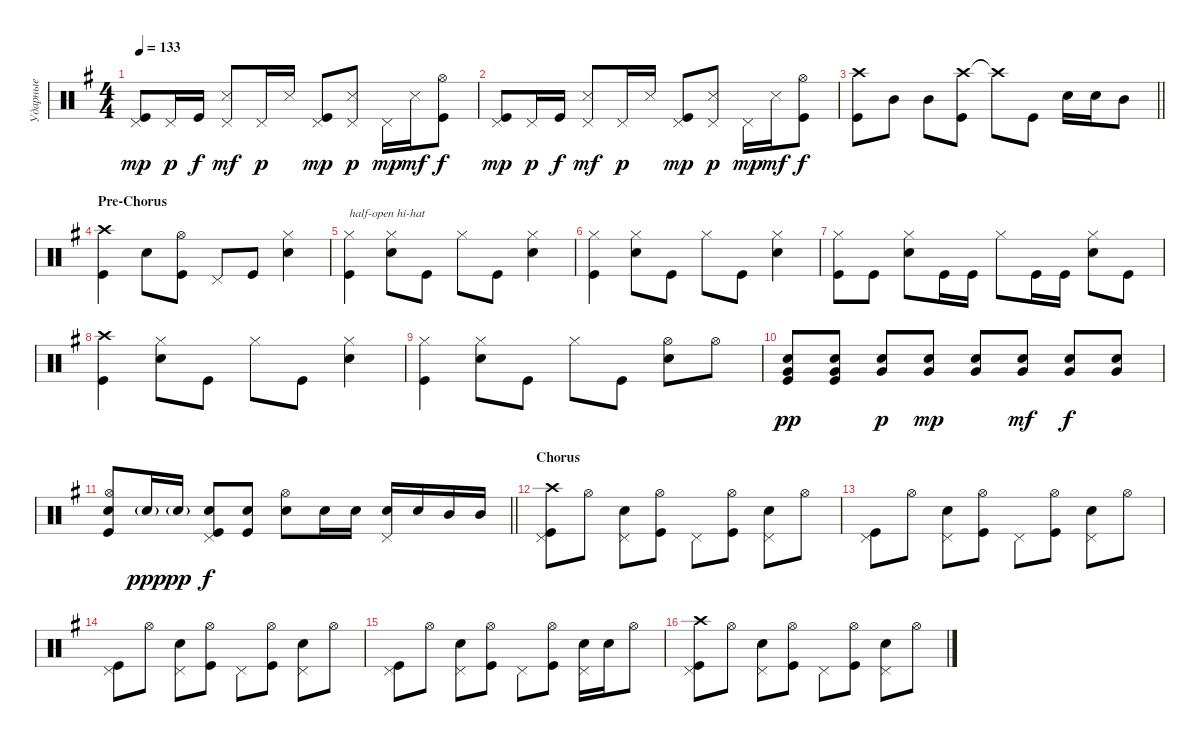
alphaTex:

\track ("Ударные" "Ударные") {instrument percussion}
\staff {score}
\articulation defaults
\ts (4 4)
\tempo 133
\clef neutral
\ks eminor
("Pedal Hi-Hat (hit)" "Kick (hit)").8{dy mp} "Pedal Hi-Hat (hit)".16{dy p} "Kick (hit)".16{dy f} ("Pedal Hi-Hat (hit)" "Snare (side stick) 3").8{dy mf} "Pedal Hi-Hat (hit)".16{dy p} "Snare (side stick) 3".16 ("Kick (hit)" "Pedal Hi-Hat (hit)").8{dy mp} ("Snare (side stick) 3" "Pedal Hi-Hat (hit)").8{dy p} "Pedal Hi-Hat (hit)".16{dy mp} "Snare (side stick) 3".16{dy mf} ("Kick (hit)" "Hi-Hat (open)").8{dy f} |
("Pedal Hi-Hat (hit)" "Kick (hit)").8{dy mp} "Pedal Hi-Hat (hit)".16{dy p} "Kick (hit)".16{dy f} ("Pedal Hi-Hat (hit)" "Snare (side stick) 3").8{dy mf} "Pedal Hi-Hat (hit)".16{dy p} "Snare (side stick) 3".16 ("Kick (hit)" "Pedal Hi-Hat (hit)").8{dy mp} ("Snare (side stick) 3" "Pedal Hi-Hat (hit)").8{dy p} "Pedal Hi-Hat (hit)".16{dy mp} "Snare (side stick) 3".16{dy mf} ("Kick (hit)" "Hi-Hat (open)").8{dy f} |
\barLineRight lightlight
("Kick (hit)" "Crash high (hit)").8 "Mid Tom (hit)".8 "Mid Tom (hit)".8 ("Crash high (hit)" "Kick (hit)").8 "Crash high (hit)"{t}.8 "Kick (hit)".8 "Snare (hit) 2".16 "Snare (hit) 2".16 "Mid Tom (hit)".8 |
\section ("" "Pre-Chorus")
("Kick (hit)" "Crash high (hit)").4 "Snare (hit) 2".8 ("Kick (hit)" "Hi-Hat (open)").8 "Pedal Hi-Hat (hit)".8 "Kick (hit)".8 ("Snare (hit) 2" "Hi-Hat (closed)").4 |
("Kick (hit)" "Hi-Hat (closed)").4{txt "half-open hi-hat"} ("Snare (hit) 2" "Hi-Hat (closed)").8 "Kick (hit)".8 "Hi-Hat (closed)".8 "Kick (hit)".8 ("Snare (hit) 2" "Hi-Hat (closed)").4 |
("Kick (hit)" "Hi-Hat (closed)").4 ("Snare (hit) 2" "Hi-Hat (closed)").8 "Kick (hit)".8 "Hi-Hat (closed)".8 "Kick (hit)".8 ("Snare (hit) 2" "Hi-Hat (closed)").4 |
("Kick (hit)" "Hi-Hat (closed)").8 "Kick (hit)".8 ("Snare (hit) 2" "Hi-Hat (closed)").8 "Kick (hit)".16 "Kick (hit)".16 "Hi-Hat (closed)".8 "Kick (hit)".16 "Kick (hit)".16 ("Snare (hit) 2" "Hi-Hat (closed)").8 "Kick (hit)".8 |
("Kick (hit)" "Crash high (hit)").4 ("Snare (hit) 2" "Hi-Hat (closed)").8 "Kick (hit)".8 "Hi-Hat (closed)".8 "Kick (hit)".8 ("Snare (hit) 2" "Hi-Hat (closed)").4 |
("Kick (hit)" "Hi-Hat (closed)").4 ("Snare (hit) 2" "Hi-Hat (closed)").8 "Kick (hit)".8 "Hi-Hat (closed)".8 "Kick (hit)".8 ("Snare (hit) 2" "Hi-Hat (open)").8 "Hi-Hat (open)".8 |
("Kick (hit)" "Very Low Tom (hit)" "Snare (hit) 2").8{dy pp} ("Kick (hit)" "Very Low Tom (hit)" "Snare (hit) 2").8 ("Very Low Tom (hit)" "Snare (hit) 2").8{bd 60 dy p} ("Very Low Tom (hit)" "Snare (hit) 2").8{bd 60 dy mp} ("Very Low Tom (hit)" "Snare (hit) 2").8{bd 60} ("Very Low Tom (hit)" "Snare (hit) 2").8{bd 60 dy mf} ("Very Low Tom (hit)" "Snare (hit) 2").8{bd 60 dy f} ("Very Low Tom (hit)" "Snare (hit) 2").8{bd 60} |
\barLineRight lightlight
("Kick (hit)" "Snare (hit) 2" "Hi-Hat (open)").8 "Snare (hit) 2"{g}.16{dy ppp} "Snare (hit) 2"{g}.16{dy pp} ("Snare (hit) 2" "Kick (hit)" "Pedal Hi-Hat (hit)").8{dy f} ("Snare (hit) 2" "Kick (hit)").8 ("Snare (hit) 2" "Hi-Hat (open)").8 "Snare (hit) 2".16 "Snare (hit) 2".16 ("Snare (hit) 2" "Pedal Hi-Hat (hit)").16 "Snare (hit) 2".16 "Mid Tom (hit)".16 "Mid Tom (hit)".16 |
\section ("" "Chorus")
("Pedal Hi-Hat (hit)" "Kick (hit)" "Crash high (hit)").8 "Hi-Hat (open)".8 ("Pedal Hi-Hat (hit)" "Snare (hit) 2").8 ("Hi-Hat (open)" "Kick (hit)").8 "Pedal Hi-Hat (hit)".8 ("Hi-Hat (open)" "Kick (hit)").8 ("Pedal Hi-Hat (hit)" "Snare (hit) 2").8 "Hi-Hat (open)".8 |
("Pedal Hi-Hat (hit)" "Kick (hit)").8 "Hi-Hat (open)".8 ("Pedal Hi-Hat (hit)" "Snare (hit) 2").8 ("Hi-Hat (open)" "Kick (hit)").8 "Pedal Hi-Hat (hit)".8 ("Hi-Hat (open)" "Kick (hit)").8 ("Pedal Hi-Hat (hit)" "Snare (hit) 2").8 "Hi-Hat (open)".8 |
("Pedal Hi-Hat (hit)" "Kick (hit)").8 "Hi-Hat (open)".8 ("Pedal Hi-Hat (hit)" "Snare (hit) 2").8 ("Hi-Hat (open)" "Kick (hit)").8 "Pedal Hi-Hat (hit)".8 ("Hi-Hat (open)" "Kick (hit)").8 ("Pedal Hi-Hat (hit)" "Snare (hit) 2").8 "Hi-Hat (open)".8 |
("Pedal Hi-Hat (hit)" "Kick (hit)").8 "Hi-Hat (open)".8 ("Pedal Hi-Hat (hit)" "Snare (hit) 2").8 ("Hi-Hat (open)" "Kick (hit)").8 "Pedal Hi-Hat (hit)".8 ("Hi-Hat (open)" "Kick (hit)").8 ("Pedal Hi-Hat (hit)" "Snare (hit) 2").16 "Snare (hit) 2".16 "Hi-Hat (open)".8 |
("Pedal Hi-Hat (hit)" "Kick (hit)" "Crash high (hit)").8 "Hi-Hat (open)".8 ("Pedal Hi-Hat (hit)" "Snare (hit) 2").8 ("Hi-Hat (open)" "Kick (hit)").8 "Pedal Hi-Hat (hit)".8 ("Hi-Hat (open)" "Kick (hit)").8 ("Pedal Hi-Hat (hit)" "Snare (hit) 2").8 "Hi-Hat (open)".8
